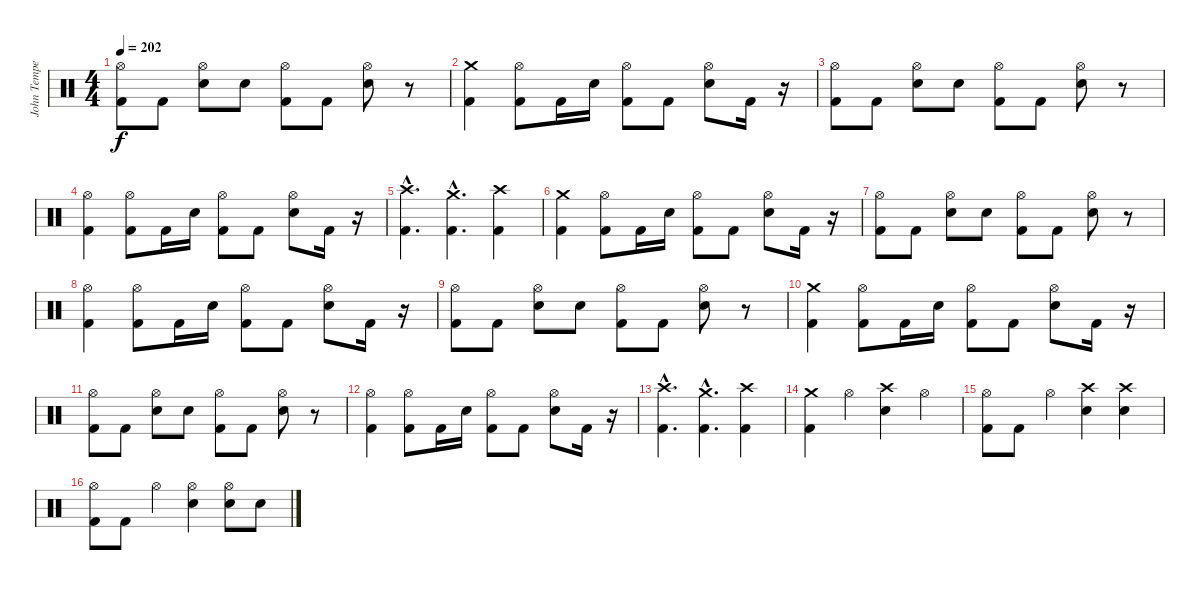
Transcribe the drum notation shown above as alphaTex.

\track ("John Tempesta" "John Tempe") {instrument percussion}
\staff {score}
\articulation defaults
\ts (4 4)
\tempo 202
\clef neutral
\ks c
("Kick (hit) 2" "Hi-Hat (open)").8{dy f} "Kick (hit) 2".8 ("Snare (hit) 2" "Hi-Hat (open)").8 "Snare (hit) 2".8 ("Kick (hit) 2" "Hi-Hat (open)").8 "Kick (hit) 2".8 ("Snare (hit) 2" "Hi-Hat (open)").8 r.8 |
("Kick (hit) 2" "Crash medium (hit)").4 ("Kick (hit) 2" "Hi-Hat (open)").8 "Kick (hit) 2".16 "Snare (hit) 2".16 ("Hi-Hat (open)" "Kick (hit) 2").8 "Kick (hit) 2".8 ("Snare (hit) 2" "Hi-Hat (open)").8 "Kick (hit) 2".16 r.16 |
("Kick (hit) 2" "Hi-Hat (open)").8 "Kick (hit) 2".8 ("Snare (hit) 2" "Hi-Hat (open)").8 "Snare (hit) 2".8 ("Kick (hit) 2" "Hi-Hat (open)").8 "Kick (hit) 2".8 ("Snare (hit) 2" "Hi-Hat (open)").8 r.8 |
("Kick (hit) 2" "Hi-Hat (open)").4 ("Kick (hit) 2" "Hi-Hat (open)").8 "Kick (hit) 2".16 "Snare (hit) 2".16 ("Hi-Hat (open)" "Kick (hit) 2").8 "Kick (hit) 2".8 ("Snare (hit) 2" "Hi-Hat (open)").8 "Kick (hit) 2".16 r.16 |
("Kick (hit) 2"{hac} "Crash high (hit)"{hac}).4{d} ("Kick (hit) 2"{hac} "Crash medium (hit)"{hac}).4{d} ("Kick (hit) 2" "Crash high (hit)").4 |
("Kick (hit) 2" "Crash medium (hit)").4 ("Kick (hit) 2" "Hi-Hat (open)").8 "Kick (hit) 2".16 "Snare (hit) 2".16 ("Hi-Hat (open)" "Kick (hit) 2").8 "Kick (hit) 2".8 ("Snare (hit) 2" "Hi-Hat (open)").8 "Kick (hit) 2".16 r.16 |
("Kick (hit) 2" "Hi-Hat (open)").8 "Kick (hit) 2".8 ("Snare (hit) 2" "Hi-Hat (open)").8 "Snare (hit) 2".8 ("Kick (hit) 2" "Hi-Hat (open)").8 "Kick (hit) 2".8 ("Snare (hit) 2" "Hi-Hat (open)").8 r.8 |
("Kick (hit) 2" "Hi-Hat (open)").4 ("Kick (hit) 2" "Hi-Hat (open)").8 "Kick (hit) 2".16 "Snare (hit) 2".16 ("Hi-Hat (open)" "Kick (hit) 2").8 "Kick (hit) 2".8 ("Snare (hit) 2" "Hi-Hat (open)").8 "Kick (hit) 2".16 r.16 |
("Kick (hit) 2" "Hi-Hat (open)").8 "Kick (hit) 2".8 ("Snare (hit) 2" "Hi-Hat (open)").8 "Snare (hit) 2".8 ("Kick (hit) 2" "Hi-Hat (open)").8 "Kick (hit) 2".8 ("Snare (hit) 2" "Hi-Hat (open)").8 r.8 |
("Kick (hit) 2" "Crash medium (hit)").4 ("Kick (hit) 2" "Hi-Hat (open)").8 "Kick (hit) 2".16 "Snare (hit) 2".16 ("Hi-Hat (open)" "Kick (hit) 2").8 "Kick (hit) 2".8 ("Snare (hit) 2" "Hi-Hat (open)").8 "Kick (hit) 2".16 r.16 |
("Kick (hit) 2" "Hi-Hat (open)").8 "Kick (hit) 2".8 ("Snare (hit) 2" "Hi-Hat (open)").8 "Snare (hit) 2".8 ("Kick (hit) 2" "Hi-Hat (open)").8 "Kick (hit) 2".8 ("Snare (hit) 2" "Hi-Hat (open)").8 r.8 |
("Kick (hit) 2" "Hi-Hat (open)").4 ("Kick (hit) 2" "Hi-Hat (open)").8 "Kick (hit) 2".16 "Snare (hit) 2".16 ("Hi-Hat (open)" "Kick (hit) 2").8 "Kick (hit) 2".8 ("Snare (hit) 2" "Hi-Hat (open)").8 "Kick (hit) 2".16 r.16 |
("Kick (hit) 2"{hac} "Crash high (hit)"{hac}).4{d} ("Kick (hit) 2"{hac} "Crash medium (hit)"{hac}).4{d} ("Kick (hit) 2" "Crash high (hit)").4 |
("Kick (hit) 2" "Crash medium (hit)").4 "Hi-Hat (open)".4 ("Snare (hit) 2" "Crash high (hit)").4 "Hi-Hat (open)".4 |
("Kick (hit) 2" "Hi-Hat (open)").8 "Kick (hit) 2".8 "Hi-Hat (open)".4 ("Snare (hit) 2" "Crash high (hit)").4 ("Snare (hit) 2" "Crash high (hit)").4 |
("Kick (hit) 2" "Hi-Hat (open)").8 "Kick (hit) 2".8 "Hi-Hat (open)".4 ("Snare (hit) 2" "Hi-Hat (open)").4 ("Snare (hit) 2" "Hi-Hat (open)").8 "Snare (hit) 2".8
